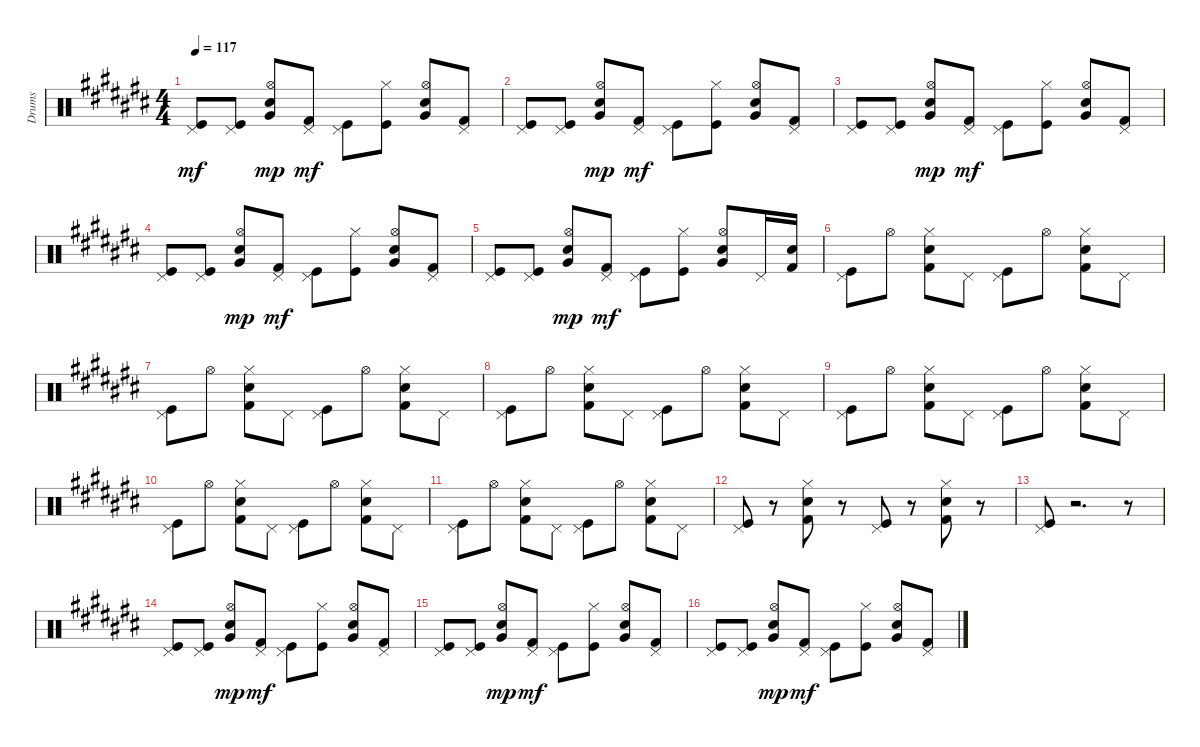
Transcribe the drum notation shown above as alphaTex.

\track ("Drums" "Drums") {instrument percussion}
\staff {score}
\articulation defaults
\ts (4 4)
\tempo 117
\clef neutral
\ks a#minor
("Pedal Hi-Hat (hit)" "Kick (hit)").8{dy mf} ("Kick (hit)" "Pedal Hi-Hat (hit)").8 ("Snare (hit) 2" "Hi-Hat (open)" "Very Low Tom (hit)").8{dy mp} ("Pedal Hi-Hat (hit)" "Kick (hit) 2").8{dy mf} ("Pedal Hi-Hat (hit)" "Kick (hit)").8 ("Kick (hit)" "Hi-Hat (closed)").8 ("Very Low Tom (hit)" "Snare (hit) 2" "Hi-Hat (open)").8 ("Pedal Hi-Hat (hit)" "Kick (hit) 2").8 |
("Pedal Hi-Hat (hit)" "Kick (hit)").8 ("Kick (hit)" "Pedal Hi-Hat (hit)").8 ("Snare (hit) 2" "Hi-Hat (open)" "Very Low Tom (hit)").8{dy mp} ("Pedal Hi-Hat (hit)" "Kick (hit) 2").8{dy mf} ("Pedal Hi-Hat (hit)" "Kick (hit)").8 ("Kick (hit)" "Hi-Hat (closed)").8 ("Very Low Tom (hit)" "Snare (hit) 2" "Hi-Hat (open)").8 ("Pedal Hi-Hat (hit)" "Kick (hit) 2").8 |
("Pedal Hi-Hat (hit)" "Kick (hit)").8 ("Kick (hit)" "Pedal Hi-Hat (hit)").8 ("Snare (hit) 2" "Hi-Hat (open)" "Very Low Tom (hit)").8{dy mp} ("Pedal Hi-Hat (hit)" "Kick (hit) 2").8{dy mf} ("Pedal Hi-Hat (hit)" "Kick (hit)").8 ("Kick (hit)" "Hi-Hat (closed)").8 ("Very Low Tom (hit)" "Snare (hit) 2" "Hi-Hat (open)").8 ("Pedal Hi-Hat (hit)" "Kick (hit) 2").8 |
("Pedal Hi-Hat (hit)" "Kick (hit)").8 ("Kick (hit)" "Pedal Hi-Hat (hit)").8 ("Snare (hit) 2" "Hi-Hat (open)" "Very Low Tom (hit)").8{dy mp} ("Pedal Hi-Hat (hit)" "Kick (hit) 2").8{dy mf} ("Pedal Hi-Hat (hit)" "Kick (hit)").8 ("Kick (hit)" "Hi-Hat (closed)").8 ("Very Low Tom (hit)" "Snare (hit) 2" "Hi-Hat (open)").8 ("Pedal Hi-Hat (hit)" "Kick (hit) 2").8 |
("Pedal Hi-Hat (hit)" "Kick (hit)").8 ("Kick (hit)" "Pedal Hi-Hat (hit)").8 ("Snare (hit) 2" "Hi-Hat (open)" "Very Low Tom (hit)").8{dy mp} ("Pedal Hi-Hat (hit)" "Kick (hit) 2").8{dy mf} ("Pedal Hi-Hat (hit)" "Kick (hit)").8 ("Kick (hit)" "Hi-Hat (closed)").8 ("Very Low Tom (hit)" "Snare (hit) 2" "Hi-Hat (open)").8 "Pedal Hi-Hat (hit)".16 ("Snare (hit) 2" "Kick (hit) 2").16 |
("Kick (hit)" "Pedal Hi-Hat (hit)").8 "Hi-Hat (open)".8 ("Kick (hit) 2" "Hi-Hat (closed)" "Snare (hit) 2").8 "Pedal Hi-Hat (hit)".8 ("Kick (hit)" "Pedal Hi-Hat (hit)").8 "Hi-Hat (open)".8 ("Kick (hit) 2" "Hi-Hat (closed)" "Snare (hit) 2").8 "Pedal Hi-Hat (hit)".8 |
("Kick (hit)" "Pedal Hi-Hat (hit)").8 "Hi-Hat (open)".8 ("Kick (hit) 2" "Hi-Hat (closed)" "Snare (hit) 2").8 "Pedal Hi-Hat (hit)".8 ("Kick (hit)" "Pedal Hi-Hat (hit)").8 "Hi-Hat (open)".8 ("Kick (hit) 2" "Hi-Hat (closed)" "Snare (hit) 2").8 "Pedal Hi-Hat (hit)".8 |
("Kick (hit)" "Pedal Hi-Hat (hit)").8 "Hi-Hat (open)".8 ("Kick (hit) 2" "Hi-Hat (closed)" "Snare (hit) 2").8 "Pedal Hi-Hat (hit)".8 ("Kick (hit)" "Pedal Hi-Hat (hit)").8 "Hi-Hat (open)".8 ("Kick (hit) 2" "Hi-Hat (closed)" "Snare (hit) 2").8 "Pedal Hi-Hat (hit)".8 |
("Kick (hit)" "Pedal Hi-Hat (hit)").8 "Hi-Hat (open)".8 ("Kick (hit) 2" "Hi-Hat (closed)" "Snare (hit) 2").8 "Pedal Hi-Hat (hit)".8 ("Kick (hit)" "Pedal Hi-Hat (hit)").8 "Hi-Hat (open)".8 ("Kick (hit) 2" "Hi-Hat (closed)" "Snare (hit) 2").8 "Pedal Hi-Hat (hit)".8 |
("Kick (hit)" "Pedal Hi-Hat (hit)").8 "Hi-Hat (open)".8 ("Kick (hit) 2" "Hi-Hat (closed)" "Snare (hit) 2").8 "Pedal Hi-Hat (hit)".8 ("Kick (hit)" "Pedal Hi-Hat (hit)").8 "Hi-Hat (open)".8 ("Kick (hit) 2" "Hi-Hat (closed)" "Snare (hit) 2").8 "Pedal Hi-Hat (hit)".8 |
("Kick (hit)" "Pedal Hi-Hat (hit)").8 "Hi-Hat (open)".8 ("Kick (hit) 2" "Hi-Hat (closed)" "Snare (hit) 2").8 "Pedal Hi-Hat (hit)".8 ("Kick (hit)" "Pedal Hi-Hat (hit)").8 "Hi-Hat (open)".8 ("Kick (hit) 2" "Hi-Hat (closed)" "Snare (hit) 2").8 "Pedal Hi-Hat (hit)".8 |
("Kick (hit)" "Pedal Hi-Hat (hit)").8 r.8 ("Kick (hit) 2" "Hi-Hat (closed)" "Snare (hit) 2").8 r.8 ("Kick (hit)" "Pedal Hi-Hat (hit)").8 r.8 ("Kick (hit) 2" "Hi-Hat (closed)" "Snare (hit) 2").8 r.8 |
("Kick (hit)" "Pedal Hi-Hat (hit)").8 r.2{d} r.8 |
("Kick (hit)" "Pedal Hi-Hat (hit)").8 ("Kick (hit)" "Pedal Hi-Hat (hit)").8 ("Snare (hit) 2" "Hi-Hat (open)" "Very Low Tom (hit)").8{dy mp} ("Pedal Hi-Hat (hit)" "Kick (hit) 2").8{dy mf} ("Pedal Hi-Hat (hit)" "Kick (hit)").8 ("Kick (hit)" "Hi-Hat (closed)").8 ("Very Low Tom (hit)" "Snare (hit) 2" "Hi-Hat (open)").8 ("Pedal Hi-Hat (hit)" "Kick (hit) 2").8 |
("Pedal Hi-Hat (hit)" "Kick (hit)").8 ("Kick (hit)" "Pedal Hi-Hat (hit)").8 ("Snare (hit) 2" "Hi-Hat (open)" "Very Low Tom (hit)").8{dy mp} ("Pedal Hi-Hat (hit)" "Kick (hit) 2").8{dy mf} ("Pedal Hi-Hat (hit)" "Kick (hit)").8 ("Kick (hit)" "Hi-Hat (closed)").8 ("Very Low Tom (hit)" "Snare (hit) 2" "Hi-Hat (open)").8 ("Pedal Hi-Hat (hit)" "Kick (hit) 2").8 |
("Kick (hit)" "Pedal Hi-Hat (hit)").8 ("Kick (hit)" "Pedal Hi-Hat (hit)").8 ("Snare (hit) 2" "Hi-Hat (open)" "Very Low Tom (hit)").8{dy mp} ("Pedal Hi-Hat (hit)" "Kick (hit) 2").8{dy mf} ("Pedal Hi-Hat (hit)" "Kick (hit)").8 ("Kick (hit)" "Hi-Hat (closed)").8 ("Very Low Tom (hit)" "Snare (hit) 2" "Hi-Hat (open)").8 ("Pedal Hi-Hat (hit)" "Kick (hit) 2").8
